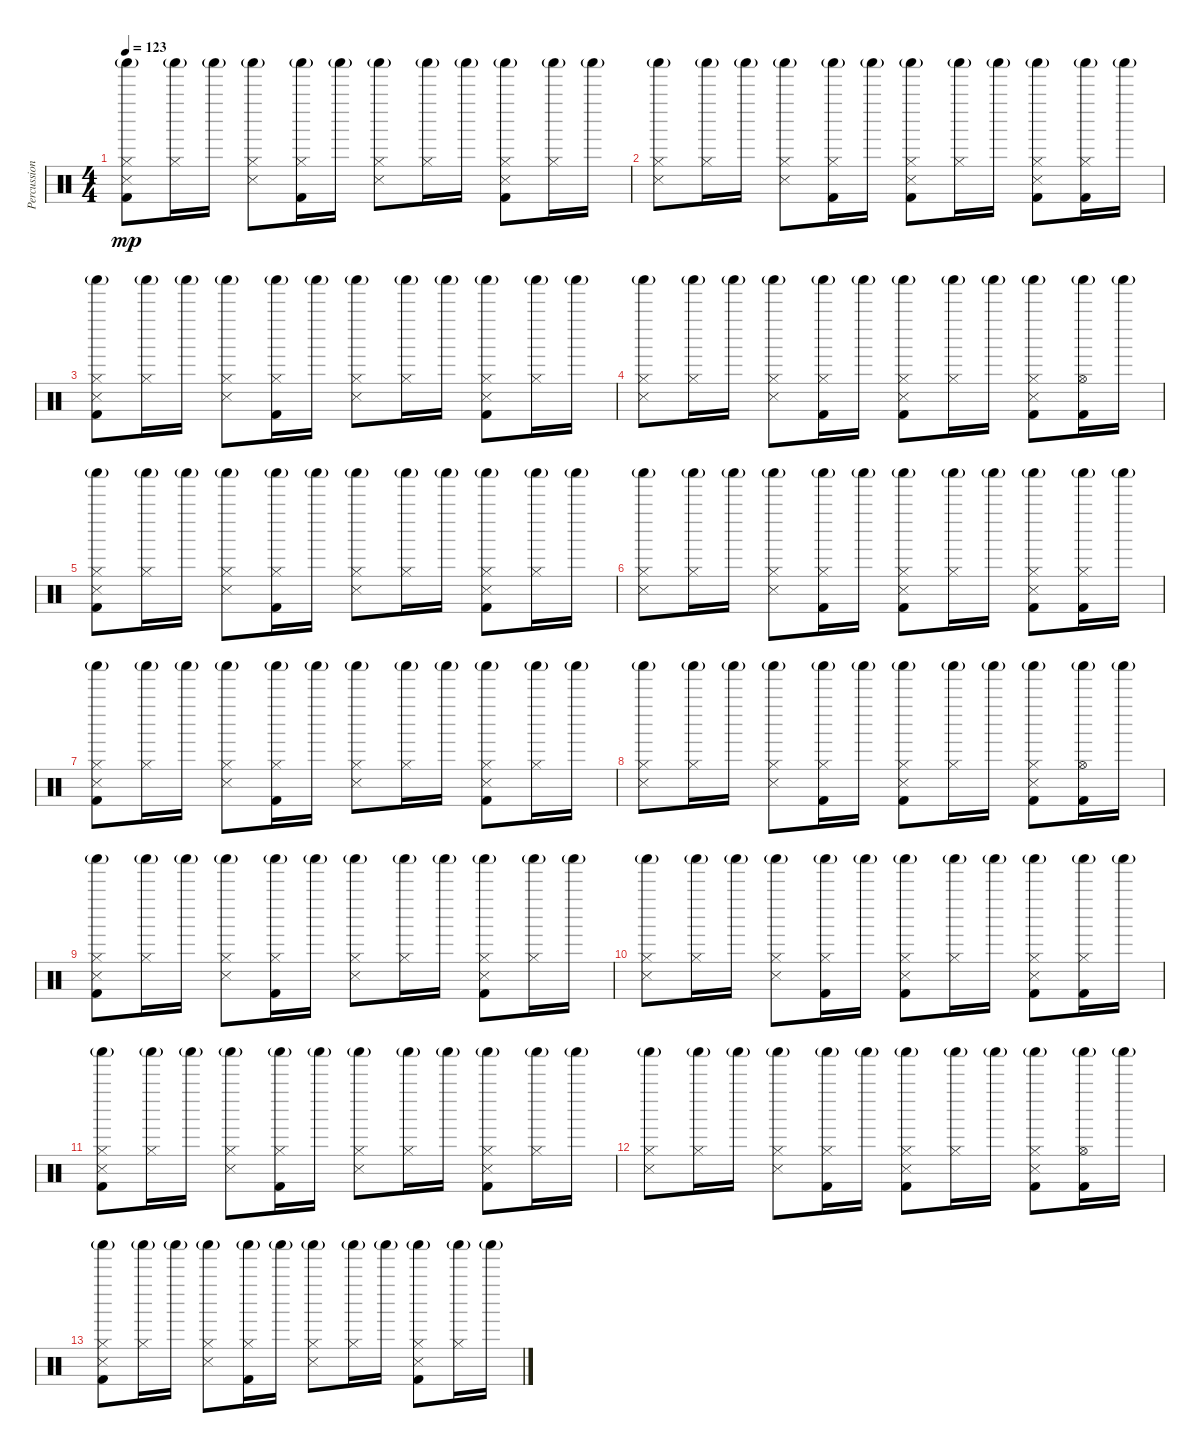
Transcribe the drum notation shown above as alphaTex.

\track ("Percussions" "Percussion") {instrument percussion}
\staff {score}
\articulation defaults
\ts (4 4)
\tempo 123
\clef neutral
\ks c
("Hi-Hat (closed)" "Shaker (hit)"{g} "Snare (side stick) 3" "Kick (hit) 2").8{dy mp} ("Hi-Hat (closed)" "Shaker (hit)"{g}).16 "Shaker (hit)"{g}.16 ("Hi-Hat (closed)" "Shaker (hit)"{g} "Snare (side stick) 3").8 ("Hi-Hat (closed)" "Shaker (hit)"{g} "Kick (hit) 2").16 "Shaker (hit)"{g}.16 ("Hi-Hat (closed)" "Shaker (hit)"{g} "Snare (side stick) 3").8 ("Hi-Hat (closed)" "Shaker (hit)"{g}).16 "Shaker (hit)"{g}.16 ("Hi-Hat (closed)" "Shaker (hit)"{g} "Snare (side stick) 3" "Kick (hit) 2").8 ("Hi-Hat (closed)" "Shaker (hit)"{g}).16 "Shaker (hit)"{g}.16 |
("Hi-Hat (closed)" "Shaker (hit)"{g} "Snare (side stick) 3").8 ("Hi-Hat (closed)" "Shaker (hit)"{g}).16 "Shaker (hit)"{g}.16 ("Hi-Hat (closed)" "Shaker (hit)"{g} "Snare (side stick) 3").8 ("Hi-Hat (closed)" "Shaker (hit)"{g} "Kick (hit) 2").16 "Shaker (hit)"{g}.16 ("Hi-Hat (closed)" "Shaker (hit)"{g} "Snare (side stick) 3" "Kick (hit) 2").8 ("Hi-Hat (closed)" "Shaker (hit)"{g}).16 "Shaker (hit)"{g}.16 ("Hi-Hat (closed)" "Shaker (hit)"{g} "Snare (side stick) 3" "Kick (hit) 2").8 ("Hi-Hat (closed)" "Shaker (hit)"{g} "Kick (hit) 2").16 "Shaker (hit)"{g}.16 |
("Hi-Hat (closed)" "Shaker (hit)"{g} "Snare (side stick) 3" "Kick (hit) 2").8 ("Hi-Hat (closed)" "Shaker (hit)"{g}).16 "Shaker (hit)"{g}.16 ("Hi-Hat (closed)" "Shaker (hit)"{g} "Snare (side stick) 3").8 ("Hi-Hat (closed)" "Shaker (hit)"{g} "Kick (hit) 2").16 "Shaker (hit)"{g}.16 ("Hi-Hat (closed)" "Shaker (hit)"{g} "Snare (side stick) 3").8 ("Hi-Hat (closed)" "Shaker (hit)"{g}).16 "Shaker (hit)"{g}.16 ("Hi-Hat (closed)" "Shaker (hit)"{g} "Snare (side stick) 3" "Kick (hit) 2").8 ("Hi-Hat (closed)" "Shaker (hit)"{g}).16 "Shaker (hit)"{g}.16 |
("Hi-Hat (closed)" "Shaker (hit)"{g} "Snare (side stick) 3").8 ("Hi-Hat (closed)" "Shaker (hit)"{g}).16 "Shaker (hit)"{g}.16 ("Hi-Hat (closed)" "Shaker (hit)"{g} "Snare (side stick) 3").8 ("Hi-Hat (closed)" "Shaker (hit)"{g} "Kick (hit) 2").16 "Shaker (hit)"{g}.16 ("Hi-Hat (closed)" "Shaker (hit)"{g} "Snare (side stick) 3" "Kick (hit) 2").8 ("Hi-Hat (closed)" "Shaker (hit)"{g}).16 "Shaker (hit)"{g}.16 ("Hi-Hat (closed)" "Shaker (hit)"{g} "Snare (side stick) 3" "Kick (hit) 2").8 ("Hi-Hat (open)" "Shaker (hit)"{g} "Kick (hit) 2").16 "Shaker (hit)"{g}.16 |
("Hi-Hat (closed)" "Shaker (hit)"{g} "Snare (side stick) 3" "Kick (hit) 2").8 ("Hi-Hat (closed)" "Shaker (hit)"{g}).16 "Shaker (hit)"{g}.16 ("Hi-Hat (closed)" "Shaker (hit)"{g} "Snare (side stick) 3").8 ("Hi-Hat (closed)" "Shaker (hit)"{g} "Kick (hit) 2").16 "Shaker (hit)"{g}.16 ("Hi-Hat (closed)" "Shaker (hit)"{g} "Snare (side stick) 3").8 ("Hi-Hat (closed)" "Shaker (hit)"{g}).16 "Shaker (hit)"{g}.16 ("Hi-Hat (closed)" "Shaker (hit)"{g} "Snare (side stick) 3" "Kick (hit) 2").8 ("Hi-Hat (closed)" "Shaker (hit)"{g}).16 "Shaker (hit)"{g}.16 |
("Hi-Hat (closed)" "Shaker (hit)"{g} "Snare (side stick) 3").8 ("Hi-Hat (closed)" "Shaker (hit)"{g}).16 "Shaker (hit)"{g}.16 ("Hi-Hat (closed)" "Shaker (hit)"{g} "Snare (side stick) 3").8 ("Hi-Hat (closed)" "Shaker (hit)"{g} "Kick (hit) 2").16 "Shaker (hit)"{g}.16 ("Hi-Hat (closed)" "Shaker (hit)"{g} "Snare (side stick) 3" "Kick (hit) 2").8 ("Hi-Hat (closed)" "Shaker (hit)"{g}).16 "Shaker (hit)"{g}.16 ("Hi-Hat (closed)" "Shaker (hit)"{g} "Snare (side stick) 3" "Kick (hit) 2").8 ("Hi-Hat (closed)" "Shaker (hit)"{g} "Kick (hit) 2").16 "Shaker (hit)"{g}.16 |
("Hi-Hat (closed)" "Shaker (hit)"{g} "Snare (side stick) 3" "Kick (hit) 2").8 ("Hi-Hat (closed)" "Shaker (hit)"{g}).16 "Shaker (hit)"{g}.16 ("Hi-Hat (closed)" "Shaker (hit)"{g} "Snare (side stick) 3").8 ("Hi-Hat (closed)" "Shaker (hit)"{g} "Kick (hit) 2").16 "Shaker (hit)"{g}.16 ("Hi-Hat (closed)" "Shaker (hit)"{g} "Snare (side stick) 3").8 ("Hi-Hat (closed)" "Shaker (hit)"{g}).16 "Shaker (hit)"{g}.16 ("Hi-Hat (closed)" "Shaker (hit)"{g} "Snare (side stick) 3" "Kick (hit) 2").8 ("Hi-Hat (closed)" "Shaker (hit)"{g}).16 "Shaker (hit)"{g}.16 |
("Hi-Hat (closed)" "Shaker (hit)"{g} "Snare (side stick) 3").8 ("Hi-Hat (closed)" "Shaker (hit)"{g}).16 "Shaker (hit)"{g}.16 ("Hi-Hat (closed)" "Shaker (hit)"{g} "Snare (side stick) 3").8 ("Hi-Hat (closed)" "Shaker (hit)"{g} "Kick (hit) 2").16 "Shaker (hit)"{g}.16 ("Hi-Hat (closed)" "Shaker (hit)"{g} "Snare (side stick) 3" "Kick (hit) 2").8 ("Hi-Hat (closed)" "Shaker (hit)"{g}).16 "Shaker (hit)"{g}.16 ("Hi-Hat (closed)" "Shaker (hit)"{g} "Snare (side stick) 3" "Kick (hit) 2").8 ("Hi-Hat (open)" "Shaker (hit)"{g} "Kick (hit) 2").16 "Shaker (hit)"{g}.16 |
("Hi-Hat (closed)" "Shaker (hit)"{g} "Snare (side stick) 3" "Kick (hit) 2").8 ("Hi-Hat (closed)" "Shaker (hit)"{g}).16 "Shaker (hit)"{g}.16 ("Hi-Hat (closed)" "Shaker (hit)"{g} "Snare (side stick) 3").8 ("Hi-Hat (closed)" "Shaker (hit)"{g} "Kick (hit) 2").16 "Shaker (hit)"{g}.16 ("Hi-Hat (closed)" "Shaker (hit)"{g} "Snare (side stick) 3").8 ("Hi-Hat (closed)" "Shaker (hit)"{g}).16 "Shaker (hit)"{g}.16 ("Hi-Hat (closed)" "Shaker (hit)"{g} "Snare (side stick) 3" "Kick (hit) 2").8 ("Hi-Hat (closed)" "Shaker (hit)"{g}).16 "Shaker (hit)"{g}.16 |
("Hi-Hat (closed)" "Shaker (hit)"{g} "Snare (side stick) 3").8 ("Hi-Hat (closed)" "Shaker (hit)"{g}).16 "Shaker (hit)"{g}.16 ("Hi-Hat (closed)" "Shaker (hit)"{g} "Snare (side stick) 3").8 ("Hi-Hat (closed)" "Shaker (hit)"{g} "Kick (hit) 2").16 "Shaker (hit)"{g}.16 ("Hi-Hat (closed)" "Shaker (hit)"{g} "Snare (side stick) 3" "Kick (hit) 2").8 ("Hi-Hat (closed)" "Shaker (hit)"{g}).16 "Shaker (hit)"{g}.16 ("Hi-Hat (closed)" "Shaker (hit)"{g} "Snare (side stick) 3" "Kick (hit) 2").8 ("Hi-Hat (closed)" "Shaker (hit)"{g} "Kick (hit) 2").16 "Shaker (hit)"{g}.16 |
("Hi-Hat (closed)" "Shaker (hit)"{g} "Snare (side stick) 3" "Kick (hit) 2").8 ("Hi-Hat (closed)" "Shaker (hit)"{g}).16 "Shaker (hit)"{g}.16 ("Hi-Hat (closed)" "Shaker (hit)"{g} "Snare (side stick) 3").8 ("Hi-Hat (closed)" "Shaker (hit)"{g} "Kick (hit) 2").16 "Shaker (hit)"{g}.16 ("Hi-Hat (closed)" "Shaker (hit)"{g} "Snare (side stick) 3").8 ("Hi-Hat (closed)" "Shaker (hit)"{g}).16 "Shaker (hit)"{g}.16 ("Hi-Hat (closed)" "Shaker (hit)"{g} "Snare (side stick) 3" "Kick (hit) 2").8 ("Hi-Hat (closed)" "Shaker (hit)"{g}).16 "Shaker (hit)"{g}.16 |
("Hi-Hat (closed)" "Shaker (hit)"{g} "Snare (side stick) 3").8 ("Hi-Hat (closed)" "Shaker (hit)"{g}).16 "Shaker (hit)"{g}.16 ("Hi-Hat (closed)" "Shaker (hit)"{g} "Snare (side stick) 3").8 ("Hi-Hat (closed)" "Shaker (hit)"{g} "Kick (hit) 2").16 "Shaker (hit)"{g}.16 ("Hi-Hat (closed)" "Shaker (hit)"{g} "Snare (side stick) 3" "Kick (hit) 2").8 ("Hi-Hat (closed)" "Shaker (hit)"{g}).16 "Shaker (hit)"{g}.16 ("Hi-Hat (closed)" "Shaker (hit)"{g} "Snare (side stick) 3" "Kick (hit) 2").8 ("Hi-Hat (open)" "Shaker (hit)"{g} "Kick (hit) 2").16 "Shaker (hit)"{g}.16 |
("Hi-Hat (closed)" "Shaker (hit)"{g} "Snare (side stick) 3" "Kick (hit) 2").8 ("Hi-Hat (closed)" "Shaker (hit)"{g}).16 "Shaker (hit)"{g}.16 ("Hi-Hat (closed)" "Shaker (hit)"{g} "Snare (side stick) 3").8 ("Hi-Hat (closed)" "Shaker (hit)"{g} "Kick (hit) 2").16 "Shaker (hit)"{g}.16 ("Hi-Hat (closed)" "Shaker (hit)"{g} "Snare (side stick) 3").8 ("Hi-Hat (closed)" "Shaker (hit)"{g}).16 "Shaker (hit)"{g}.16 ("Hi-Hat (closed)" "Shaker (hit)"{g} "Snare (side stick) 3" "Kick (hit) 2").8 ("Hi-Hat (closed)" "Shaker (hit)"{g}).16 "Shaker (hit)"{g}.16
